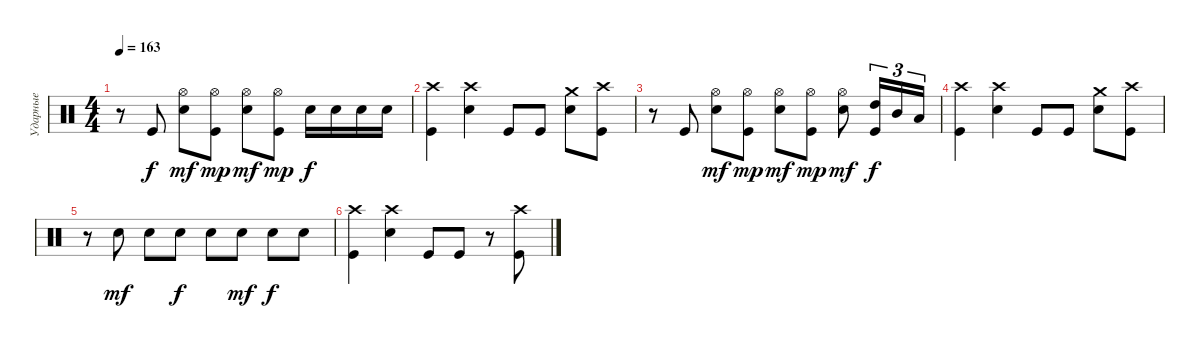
\track ("Ударные" "Ударные") {instrument percussion}
\staff
\articulation defaults
\ts (4 4)
\tempo 163
\clef neutral
\ks c
r.8{dy f} "Kick (hit)".8 ("Hi-Hat (open)" "Snare (hit) 2").8{dy mf} ("Hi-Hat (open)" "Kick (hit)").8{dy mp} ("Hi-Hat (open)" "Snare (hit) 2").8{dy mf} ("Hi-Hat (open)" "Kick (hit)").8{dy mp} "Snare (hit) 2".16{dy f} "Snare (hit) 2".16 "Snare (hit) 2".16 "Snare (hit) 2".16 |
("Crash high (hit)" "Kick (hit)").4 ("Crash high (hit)" "Snare (hit) 2").4 "Kick (hit)".8 "Kick (hit)".8 ("Crash medium (hit)" "Snare (hit) 2").8 ("Crash high (hit)" "Kick (hit)").8 |
r.8 "Kick (hit)".8 ("Hi-Hat (open)" "Snare (hit) 2").8{dy mf} ("Hi-Hat (open)" "Kick (hit)").8{dy mp} ("Hi-Hat (open)" "Snare (hit) 2").8{dy mf} ("Hi-Hat (open)" "Kick (hit)").8{dy mp} ("Hi-Hat (open)" "Snare (hit) 2").8{dy mf} ("High Tom (hit)" "Kick (hit)").16{tu (3 2) dy f} "Mid Tom (hit)".16{tu (3 2)} "Low Tom (hit)".16{tu (3 2)} |
("Crash high (hit)" "Kick (hit)").4 ("Crash high (hit)" "Snare (hit) 2").4 "Kick (hit)".8 "Kick (hit)".8 ("Crash medium (hit)" "Snare (hit) 2").8 ("Crash high (hit)" "Kick (hit)").8 |
r.8 "Snare (hit) 2".8{dy mf} "Snare (hit) 2".8 "Snare (hit) 2".8{dy f} "Snare (hit) 2".8 "Snare (hit) 2".8{dy mf} "Snare (hit) 2".8{dy f} "Snare (hit) 2".8 |
("Crash high (hit)" "Kick (hit)").4 ("Crash high (hit)" "Snare (hit) 2").4 "Kick (hit)".8 "Kick (hit)".8 r.8 ("Crash high (hit)" "Kick (hit)").8
